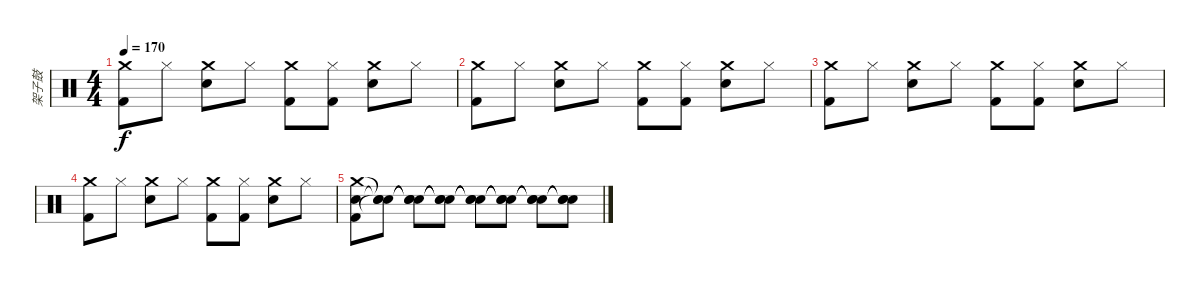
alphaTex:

\track ("架子鼓" "架子鼓") {instrument percussion}
\staff {score}
\articulation defaults
\ts (4 4)
\tempo 170
\clef neutral
\ks c
("Crash medium (hit)" "Kick (hit) 2").8{dy f} "Hi-Hat (closed)".8 ("Crash medium (hit)" "Snare (hit) 2").8 "Hi-Hat (closed)".8 ("Crash medium (hit)" "Kick (hit) 2").8 ("Hi-Hat (closed)" "Kick (hit) 2").8 ("Crash medium (hit)" "Snare (hit) 2").8 "Hi-Hat (closed)".8 |
("Crash medium (hit)" "Kick (hit) 2").8 "Hi-Hat (closed)".8 ("Crash medium (hit)" "Snare (hit) 2").8 "Hi-Hat (closed)".8 ("Crash medium (hit)" "Kick (hit) 2").8 ("Hi-Hat (closed)" "Kick (hit) 2").8 ("Crash medium (hit)" "Snare (hit) 2").8 "Hi-Hat (closed)".8 |
("Crash medium (hit)" "Kick (hit) 2").8 "Hi-Hat (closed)".8 ("Crash medium (hit)" "Snare (hit) 2").8 "Hi-Hat (closed)".8 ("Crash medium (hit)" "Kick (hit) 2").8 ("Hi-Hat (closed)" "Kick (hit) 2").8 ("Crash medium (hit)" "Snare (hit) 2").8 "Hi-Hat (closed)".8 |
("Crash medium (hit)" "Kick (hit) 2").8 "Hi-Hat (closed)".8 ("Crash medium (hit)" "Snare (hit) 2").8 "Hi-Hat (closed)".8 ("Crash medium (hit)" "Kick (hit) 2").8 ("Hi-Hat (closed)" "Kick (hit) 2").8 ("Crash medium (hit)" "Snare (hit) 2").8 "Hi-Hat (closed)".8 |
("Crash medium (hit)" "Snare (hit) 2" "Kick (hit) 2").8 ("Snare (hit)"{t} "Snare (hit)"{t} "Snare (hit)"{t}).8 ("Snare (hit)"{t} "Snare (hit)"{t} "Snare (hit)"{t}).8 ("Snare (hit)"{t} "Snare (hit)"{t} "Snare (hit)"{t}).8 ("Snare (hit)"{t} "Snare (hit)"{t} "Snare (hit)"{t}).8 ("Snare (hit)"{t} "Snare (hit)"{t} "Snare (hit)"{t}).8 ("Snare (hit)"{t} "Snare (hit)"{t} "Snare (hit)"{t}).8 ("Snare (hit)"{t} "Snare (hit)"{t} "Snare (hit)"{t}).8
